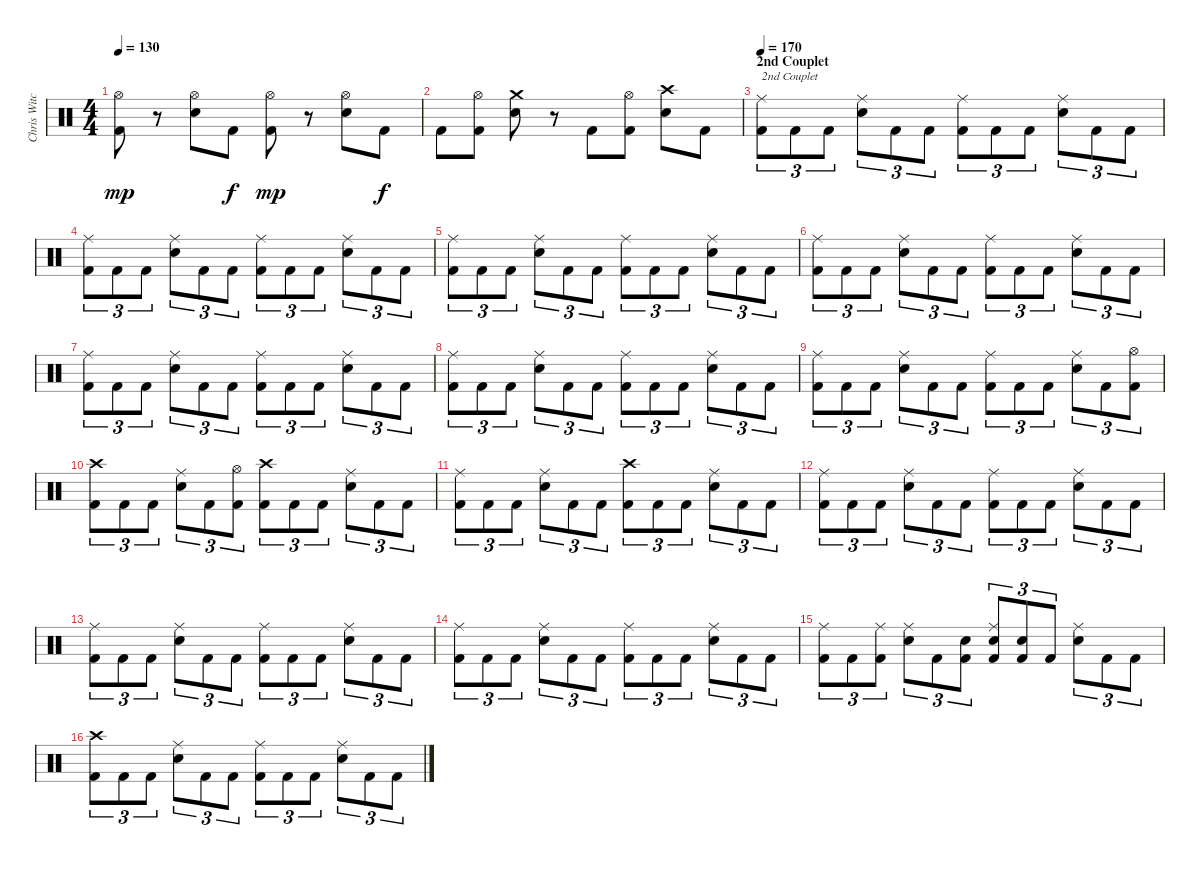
\track ("Chris Witchhunter" "Chris Witc") {instrument percussion}
\staff {score}
\articulation defaults
\ts (4 4)
\tempo 130
\clef neutral
\ks c
("Hi-Hat (open)" "Kick (hit) 2").8{dy mp} r.8 ("Hi-Hat (open)" "Electric Snare (hit)").8 "Kick (hit) 2".8{dy f} ("Hi-Hat (open)" "Kick (hit) 2").8{dy mp} r.8 ("Hi-Hat (open)" "Electric Snare (hit)").8 "Kick (hit) 2".8{dy f} |
"Kick (hit) 2".8 ("Hi-Hat (open)" "Kick (hit) 2").8 ("Crash medium (hit)" "Electric Snare (hit)").8 r.8 "Kick (hit) 2".8 ("Hi-Hat (open)" "Kick (hit) 2").8 ("Crash high (hit)" "Electric Snare (hit)").8 "Kick (hit) 2".8 |
\section ("" "2nd Couplet")
\tempo 170
("Ride (middle)" "Kick (hit) 2").8{tu (3 2) txt "2nd Couplet"} "Kick (hit) 2".8{tu (3 2)} "Kick (hit) 2".8{tu (3 2)} ("Ride (middle)" "Electric Snare (hit)").8{tu (3 2)} "Kick (hit) 2".8{tu (3 2)} "Kick (hit) 2".8{tu (3 2)} ("Ride (middle)" "Kick (hit) 2").8{tu (3 2)} "Kick (hit) 2".8{tu (3 2)} "Kick (hit) 2".8{tu (3 2)} ("Ride (middle)" "Electric Snare (hit)").8{tu (3 2)} "Kick (hit) 2".8{tu (3 2)} "Kick (hit) 2".8{tu (3 2)} |
("Ride (middle)" "Kick (hit) 2").8{tu (3 2)} "Kick (hit) 2".8{tu (3 2)} "Kick (hit) 2".8{tu (3 2)} ("Ride (middle)" "Electric Snare (hit)").8{tu (3 2)} "Kick (hit) 2".8{tu (3 2)} "Kick (hit) 2".8{tu (3 2)} ("Ride (middle)" "Kick (hit) 2").8{tu (3 2)} "Kick (hit) 2".8{tu (3 2)} "Kick (hit) 2".8{tu (3 2)} ("Ride (middle)" "Electric Snare (hit)").8{tu (3 2)} "Kick (hit) 2".8{tu (3 2)} "Kick (hit) 2".8{tu (3 2)} |
("Ride (middle)" "Kick (hit) 2").8{tu (3 2)} "Kick (hit) 2".8{tu (3 2)} "Kick (hit) 2".8{tu (3 2)} ("Ride (middle)" "Electric Snare (hit)").8{tu (3 2)} "Kick (hit) 2".8{tu (3 2)} "Kick (hit) 2".8{tu (3 2)} ("Ride (middle)" "Kick (hit) 2").8{tu (3 2)} "Kick (hit) 2".8{tu (3 2)} "Kick (hit) 2".8{tu (3 2)} ("Ride (middle)" "Electric Snare (hit)").8{tu (3 2)} "Kick (hit) 2".8{tu (3 2)} "Kick (hit) 2".8{tu (3 2)} |
("Ride (middle)" "Kick (hit) 2").8{tu (3 2)} "Kick (hit) 2".8{tu (3 2)} "Kick (hit) 2".8{tu (3 2)} ("Ride (middle)" "Electric Snare (hit)").8{tu (3 2)} "Kick (hit) 2".8{tu (3 2)} "Kick (hit) 2".8{tu (3 2)} ("Ride (middle)" "Kick (hit) 2").8{tu (3 2)} "Kick (hit) 2".8{tu (3 2)} "Kick (hit) 2".8{tu (3 2)} ("Ride (middle)" "Electric Snare (hit)").8{tu (3 2)} "Kick (hit) 2".8{tu (3 2)} "Kick (hit) 2".8{tu (3 2)} |
("Ride (middle)" "Kick (hit) 2").8{tu (3 2)} "Kick (hit) 2".8{tu (3 2)} "Kick (hit) 2".8{tu (3 2)} ("Ride (middle)" "Electric Snare (hit)").8{tu (3 2)} "Kick (hit) 2".8{tu (3 2)} "Kick (hit) 2".8{tu (3 2)} ("Ride (middle)" "Kick (hit) 2").8{tu (3 2)} "Kick (hit) 2".8{tu (3 2)} "Kick (hit) 2".8{tu (3 2)} ("Ride (middle)" "Electric Snare (hit)").8{tu (3 2)} "Kick (hit) 2".8{tu (3 2)} "Kick (hit) 2".8{tu (3 2)} |
("Ride (middle)" "Kick (hit) 2").8{tu (3 2)} "Kick (hit) 2".8{tu (3 2)} "Kick (hit) 2".8{tu (3 2)} ("Ride (middle)" "Electric Snare (hit)").8{tu (3 2)} "Kick (hit) 2".8{tu (3 2)} "Kick (hit) 2".8{tu (3 2)} ("Ride (middle)" "Kick (hit) 2").8{tu (3 2)} "Kick (hit) 2".8{tu (3 2)} "Kick (hit) 2".8{tu (3 2)} ("Ride (middle)" "Electric Snare (hit)").8{tu (3 2)} "Kick (hit) 2".8{tu (3 2)} "Kick (hit) 2".8{tu (3 2)} |
("Ride (middle)" "Kick (hit) 2").8{tu (3 2)} "Kick (hit) 2".8{tu (3 2)} "Kick (hit) 2".8{tu (3 2)} ("Ride (middle)" "Electric Snare (hit)").8{tu (3 2)} "Kick (hit) 2".8{tu (3 2)} "Kick (hit) 2".8{tu (3 2)} ("Ride (middle)" "Kick (hit) 2").8{tu (3 2)} "Kick (hit) 2".8{tu (3 2)} "Kick (hit) 2".8{tu (3 2)} ("Ride (middle)" "Electric Snare (hit)").8{tu (3 2)} "Kick (hit) 2".8{tu (3 2)} ("Hi-Hat (open)" "Kick (hit) 2").8{tu (3 2)} |
("Crash high (hit)" "Kick (hit) 2").8{tu (3 2)} "Kick (hit) 2".8{tu (3 2)} "Kick (hit) 2".8{tu (3 2)} ("Ride (middle)" "Electric Snare (hit)").8{tu (3 2)} "Kick (hit) 2".8{tu (3 2)} ("Hi-Hat (open)" "Kick (hit) 2").8{tu (3 2)} ("Crash high (hit)" "Kick (hit) 2").8{tu (3 2)} "Kick (hit) 2".8{tu (3 2)} "Kick (hit) 2".8{tu (3 2)} ("Ride (middle)" "Electric Snare (hit)").8{tu (3 2)} "Kick (hit) 2".8{tu (3 2)} "Kick (hit) 2".8{tu (3 2)} |
("Ride (middle)" "Kick (hit) 2").8{tu (3 2)} "Kick (hit) 2".8{tu (3 2)} "Kick (hit) 2".8{tu (3 2)} ("Ride (middle)" "Electric Snare (hit)").8{tu (3 2)} "Kick (hit) 2".8{tu (3 2)} "Kick (hit) 2".8{tu (3 2)} ("Crash high (hit)" "Kick (hit) 2").8{tu (3 2)} "Kick (hit) 2".8{tu (3 2)} "Kick (hit) 2".8{tu (3 2)} ("Ride (middle)" "Electric Snare (hit)").8{tu (3 2)} "Kick (hit) 2".8{tu (3 2)} "Kick (hit) 2".8{tu (3 2)} |
("Ride (middle)" "Kick (hit) 2").8{tu (3 2)} "Kick (hit) 2".8{tu (3 2)} "Kick (hit) 2".8{tu (3 2)} ("Ride (middle)" "Electric Snare (hit)").8{tu (3 2)} "Kick (hit) 2".8{tu (3 2)} "Kick (hit) 2".8{tu (3 2)} ("Ride (middle)" "Kick (hit) 2").8{tu (3 2)} "Kick (hit) 2".8{tu (3 2)} "Kick (hit) 2".8{tu (3 2)} ("Ride (middle)" "Electric Snare (hit)").8{tu (3 2)} "Kick (hit) 2".8{tu (3 2)} "Kick (hit) 2".8{tu (3 2)} |
("Ride (middle)" "Kick (hit) 2").8{tu (3 2)} "Kick (hit) 2".8{tu (3 2)} "Kick (hit) 2".8{tu (3 2)} ("Ride (middle)" "Electric Snare (hit)").8{tu (3 2)} "Kick (hit) 2".8{tu (3 2)} "Kick (hit) 2".8{tu (3 2)} ("Ride (middle)" "Kick (hit) 2").8{tu (3 2)} "Kick (hit) 2".8{tu (3 2)} "Kick (hit) 2".8{tu (3 2)} ("Ride (middle)" "Electric Snare (hit)").8{tu (3 2)} "Kick (hit) 2".8{tu (3 2)} "Kick (hit) 2".8{tu (3 2)} |
("Ride (middle)" "Kick (hit) 2").8{tu (3 2)} "Kick (hit) 2".8{tu (3 2)} "Kick (hit) 2".8{tu (3 2)} ("Ride (middle)" "Electric Snare (hit)").8{tu (3 2)} "Kick (hit) 2".8{tu (3 2)} "Kick (hit) 2".8{tu (3 2)} ("Ride (middle)" "Kick (hit) 2").8{tu (3 2)} "Kick (hit) 2".8{tu (3 2)} "Kick (hit) 2".8{tu (3 2)} ("Ride (middle)" "Electric Snare (hit)").8{tu (3 2)} "Kick (hit) 2".8{tu (3 2)} "Kick (hit) 2".8{tu (3 2)} |
("Ride (middle)" "Kick (hit) 2").8{tu (3 2)} "Kick (hit) 2".8{tu (3 2)} ("Ride (middle)" "Kick (hit) 2").8{tu (3 2)} ("Ride (middle)" "Electric Snare (hit)").8{tu (3 2)} "Kick (hit) 2".8{tu (3 2)} ("Electric Snare (hit)" "Kick (hit) 2").8{tu (3 2)} ("Ride (middle)" "Snare (hit) 2" "Kick (hit) 2").8{tu (3 2)} ("Electric Snare (hit)" "Kick (hit) 2").8{tu (3 2)} "Kick (hit) 2".8{tu (3 2)} ("Ride (middle)" "Electric Snare (hit)").8{tu (3 2)} "Kick (hit) 2".8{tu (3 2)} "Kick (hit) 2".8{tu (3 2)} |
("Crash high (hit)" "Kick (hit) 2").8{tu (3 2)} "Kick (hit) 2".8{tu (3 2)} "Kick (hit) 2".8{tu (3 2)} ("Ride (middle)" "Electric Snare (hit)").8{tu (3 2)} "Kick (hit) 2".8{tu (3 2)} "Kick (hit) 2".8{tu (3 2)} ("Ride (middle)" "Kick (hit) 2").8{tu (3 2)} "Kick (hit) 2".8{tu (3 2)} "Kick (hit) 2".8{tu (3 2)} ("Ride (middle)" "Electric Snare (hit)").8{tu (3 2)} "Kick (hit) 2".8{tu (3 2)} "Kick (hit) 2".8{tu (3 2)}
